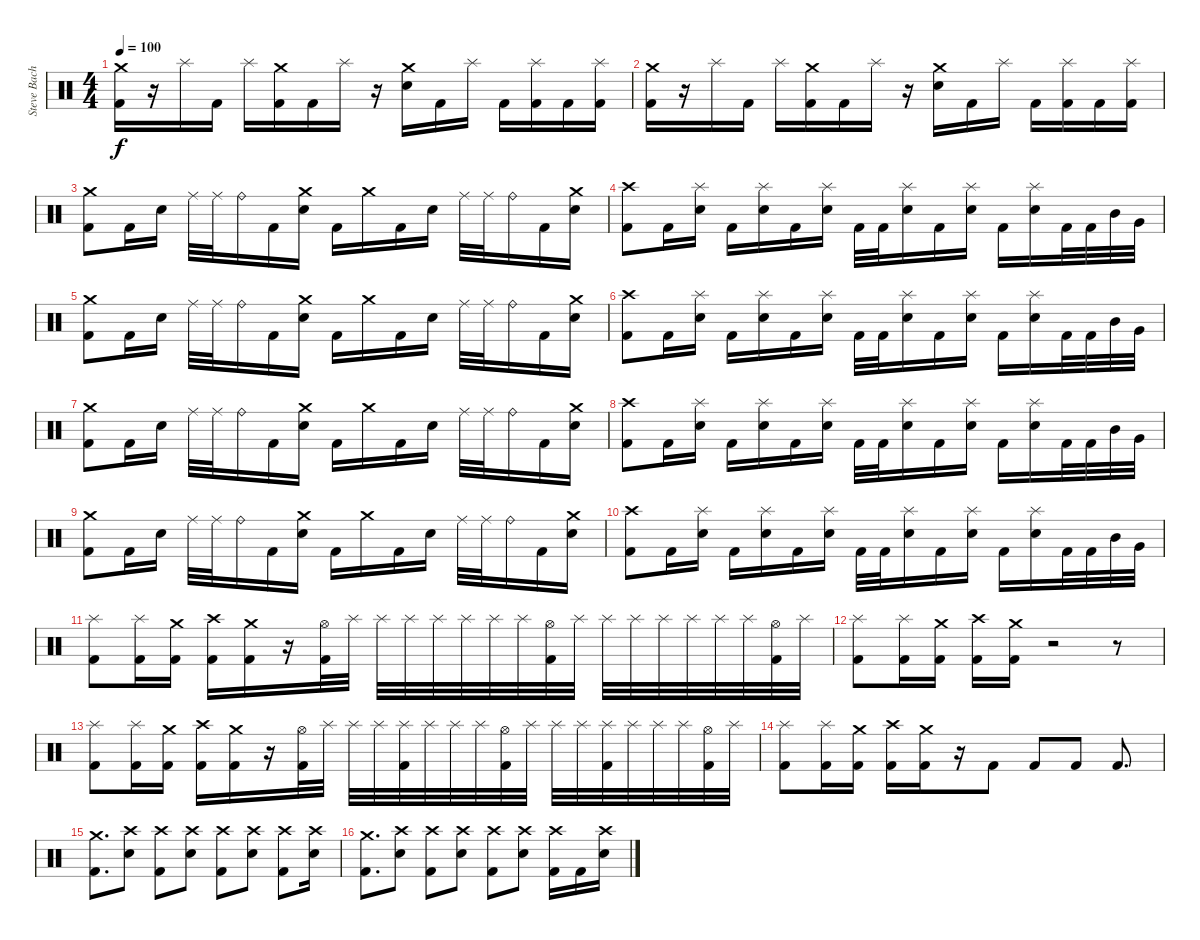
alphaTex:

\track ("Steve Bache" "Steve Bach") {instrument percussion}
\staff {score}
\articulation defaults
\ts (4 4)
\tempo 100
\clef neutral
\ks c
("Crash medium (hit)" "Kick (hit) 2").16{dy f} r.16 "Splash (hit)".16 "Kick (hit) 2".16 "Splash (hit)".16 ("Crash medium (hit)" "Kick (hit) 2").16 "Kick (hit) 2".16 "Splash (hit)".16 r.16 ("Crash medium (hit)" "Electric Snare (hit)").16 "Kick (hit) 2".16 "Splash (hit)".16 "Kick (hit) 2".16 ("Splash (hit)" "Kick (hit) 2").16 "Kick (hit) 2".16 ("Splash (hit)" "Kick (hit) 2").16 |
("Crash medium (hit)" "Kick (hit) 2").16 r.16 "Splash (hit)".16 "Kick (hit) 2".16 "Splash (hit)".16 ("Crash medium (hit)" "Kick (hit) 2").16 "Kick (hit) 2".16 "Splash (hit)".16 r.16 ("Crash medium (hit)" "Electric Snare (hit)").16 "Kick (hit) 2".16 "Splash (hit)".16 "Kick (hit) 2".16 ("Splash (hit)" "Kick (hit) 2").16 "Kick (hit) 2".16 ("Splash (hit)" "Kick (hit) 2").16 |
("Crash medium (hit)" "Kick (hit) 2").8 "Kick (hit) 2".16 "Electric Snare (hit)".16 "Ride (middle)".32 "Ride (middle)".32 "Ride (bell)".16 "Kick (hit) 2".16 ("Crash medium (hit)" "Electric Snare (hit)").16 "Kick (hit) 2".16 "Crash medium (hit)".16 "Kick (hit) 2".16 "Electric Snare (hit)".16 "Ride (middle)".32 "Ride (middle)".32 "Ride (bell)".16 "Kick (hit) 2".16 ("Crash medium (hit)" "Electric Snare (hit)").16 |
("Crash high (hit)" "Kick (hit) 2").8 "Kick (hit) 2".16 ("Splash (hit)" "Electric Snare (hit)").16 "Kick (hit) 2".16 ("Splash (hit)" "Electric Snare (hit)").16 "Kick (hit) 2".16 ("Splash (hit)" "Electric Snare (hit)").16 "Kick (hit) 2".32 "Kick (hit) 2".32 ("Splash (hit)" "Electric Snare (hit)").16 "Kick (hit) 2".16 ("Splash (hit)" "Electric Snare (hit)").16 "Kick (hit) 2".16 ("Splash (hit)" "Electric Snare (hit)").16 "Kick (hit) 2".32 "Kick (hit) 2".32 "Mid Tom (hit)".32 "Very Low Tom (hit)".32 |
("Crash medium (hit)" "Kick (hit) 2").8 "Kick (hit) 2".16 "Electric Snare (hit)".16 "Ride (middle)".32 "Ride (middle)".32 "Ride (bell)".16 "Kick (hit) 2".16 ("Crash medium (hit)" "Electric Snare (hit)").16 "Kick (hit) 2".16 "Crash medium (hit)".16 "Kick (hit) 2".16 "Electric Snare (hit)".16 "Ride (middle)".32 "Ride (middle)".32 "Ride (bell)".16 "Kick (hit) 2".16 ("Crash medium (hit)" "Electric Snare (hit)").16 |
("Crash high (hit)" "Kick (hit) 2").8 "Kick (hit) 2".16 ("Splash (hit)" "Electric Snare (hit)").16 "Kick (hit) 2".16 ("Splash (hit)" "Electric Snare (hit)").16 "Kick (hit) 2".16 ("Splash (hit)" "Electric Snare (hit)").16 "Kick (hit) 2".32 "Kick (hit) 2".32 ("Splash (hit)" "Electric Snare (hit)").16 "Kick (hit) 2".16 ("Splash (hit)" "Electric Snare (hit)").16 "Kick (hit) 2".16 ("Splash (hit)" "Electric Snare (hit)").16 "Kick (hit) 2".32 "Kick (hit) 2".32 "Mid Tom (hit)".32 "Very Low Tom (hit)".32 |
("Crash medium (hit)" "Kick (hit) 2").8 "Kick (hit) 2".16 "Electric Snare (hit)".16 "Ride (middle)".32 "Ride (middle)".32 "Ride (bell)".16 "Kick (hit) 2".16 ("Crash medium (hit)" "Electric Snare (hit)").16 "Kick (hit) 2".16 "Crash medium (hit)".16 "Kick (hit) 2".16 "Electric Snare (hit)".16 "Ride (middle)".32 "Ride (middle)".32 "Ride (bell)".16 "Kick (hit) 2".16 ("Crash medium (hit)" "Electric Snare (hit)").16 |
("Crash high (hit)" "Kick (hit) 2").8 "Kick (hit) 2".16 ("Splash (hit)" "Electric Snare (hit)").16 "Kick (hit) 2".16 ("Splash (hit)" "Electric Snare (hit)").16 "Kick (hit) 2".16 ("Splash (hit)" "Electric Snare (hit)").16 "Kick (hit) 2".32 "Kick (hit) 2".32 ("Splash (hit)" "Electric Snare (hit)").16 "Kick (hit) 2".16 ("Splash (hit)" "Electric Snare (hit)").16 "Kick (hit) 2".16 ("Splash (hit)" "Electric Snare (hit)").16 "Kick (hit) 2".32 "Kick (hit) 2".32 "Mid Tom (hit)".32 "Very Low Tom (hit)".32 |
("Crash medium (hit)" "Kick (hit) 2").8 "Kick (hit) 2".16 "Electric Snare (hit)".16 "Ride (middle)".32 "Ride (middle)".32 "Ride (bell)".16 "Kick (hit) 2".16 ("Crash medium (hit)" "Electric Snare (hit)").16 "Kick (hit) 2".16 "Crash medium (hit)".16 "Kick (hit) 2".16 "Electric Snare (hit)".16 "Ride (middle)".32 "Ride (middle)".32 "Ride (bell)".16 "Kick (hit) 2".16 ("Crash medium (hit)" "Electric Snare (hit)").16 |
("Crash high (hit)" "Kick (hit) 2").8 "Kick (hit) 2".16 ("Splash (hit)" "Electric Snare (hit)").16 "Kick (hit) 2".16 ("Splash (hit)" "Electric Snare (hit)").16 "Kick (hit) 2".16 ("Splash (hit)" "Electric Snare (hit)").16 "Kick (hit) 2".32 "Kick (hit) 2".32 ("Splash (hit)" "Electric Snare (hit)").16 "Kick (hit) 2".16 ("Splash (hit)" "Electric Snare (hit)").16 "Kick (hit) 2".16 ("Splash (hit)" "Electric Snare (hit)").16 "Kick (hit) 2".32 "Kick (hit) 2".32 "Mid Tom (hit)".32 "Very Low Tom (hit)".32 |
("Splash (hit)" "Kick (hit) 2").8 ("Splash (hit)" "Kick (hit) 2").16 ("Crash medium (hit)" "Kick (hit) 2").16 ("Crash high (hit)" "Kick (hit) 2").16 ("Crash medium (hit)" "Kick (hit) 2").16 r.16 ("Hi-Hat (open)" "Kick (hit) 2").32 "Splash (hit)".32 "Splash (hit)".32 "Splash (hit)".32 "Splash (hit)".32 "Splash (hit)".32 "Splash (hit)".32 "Splash (hit)".32 ("Hi-Hat (open)" "Kick (hit) 2").32 "Splash (hit)".32 "Splash (hit)".32 "Splash (hit)".32 "Splash (hit)".32 "Splash (hit)".32 "Splash (hit)".32 "Splash (hit)".32 ("Hi-Hat (open)" "Kick (hit) 2").32 "Splash (hit)".32 |
("Splash (hit)" "Kick (hit) 2").8 ("Splash (hit)" "Kick (hit) 2").16 ("Crash medium (hit)" "Kick (hit) 2").16 ("Crash high (hit)" "Kick (hit) 2").16 ("Crash medium (hit)" "Kick (hit) 2").16 r.2 r.8 |
("Splash (hit)" "Kick (hit) 2").8 ("Splash (hit)" "Kick (hit) 2").16 ("Crash medium (hit)" "Kick (hit) 2").16 ("Crash high (hit)" "Kick (hit) 2").16 ("Crash medium (hit)" "Kick (hit) 2").16 r.16 ("Hi-Hat (open)" "Kick (hit) 2").32 "Splash (hit)".32 "Splash (hit)".32 "Splash (hit)".32 ("Splash (hit)" "Kick (hit) 2").32 "Splash (hit)".32 "Splash (hit)".32 "Splash (hit)".32 ("Hi-Hat (open)" "Kick (hit) 2").32 "Splash (hit)".32 "Splash (hit)".32 "Splash (hit)".32 ("Splash (hit)" "Kick (hit) 2").32 "Splash (hit)".32 "Splash (hit)".32 "Splash (hit)".32 ("Hi-Hat (open)" "Kick (hit) 2").32 "Splash (hit)".32 |
("Splash (hit)" "Kick (hit) 2").8 ("Splash (hit)" "Kick (hit) 2").16 ("Crash medium (hit)" "Kick (hit) 2").16 ("Crash high (hit)" "Kick (hit) 2").16 ("Crash medium (hit)" "Kick (hit) 2").16 r.16 "Kick (hit) 2".8 "Kick (hit) 2".8 "Kick (hit) 2".8 "Kick (hit) 2".8{d} |
("Crash medium (hit)" "Kick (hit) 2").8{d} ("Crash high (hit)" "Electric Snare (hit)").8 ("Crash high (hit)" "Kick (hit) 2").8 ("Crash high (hit)" "Electric Snare (hit)").8 ("Crash high (hit)" "Kick (hit) 2").8 ("Crash high (hit)" "Electric Snare (hit)").8 ("Crash high (hit)" "Kick (hit) 2").8 ("Crash high (hit)" "Electric Snare (hit)").16 |
("Crash medium (hit)" "Kick (hit) 2").8{d} ("Crash high (hit)" "Electric Snare (hit)").8 ("Crash high (hit)" "Kick (hit) 2").8 ("Crash high (hit)" "Electric Snare (hit)").8 ("Crash high (hit)" "Kick (hit) 2").8 ("Crash high (hit)" "Electric Snare (hit)").8 ("Crash high (hit)" "Kick (hit) 2").16 "Kick (hit) 2".16 ("Crash high (hit)" "Electric Snare (hit)").16
